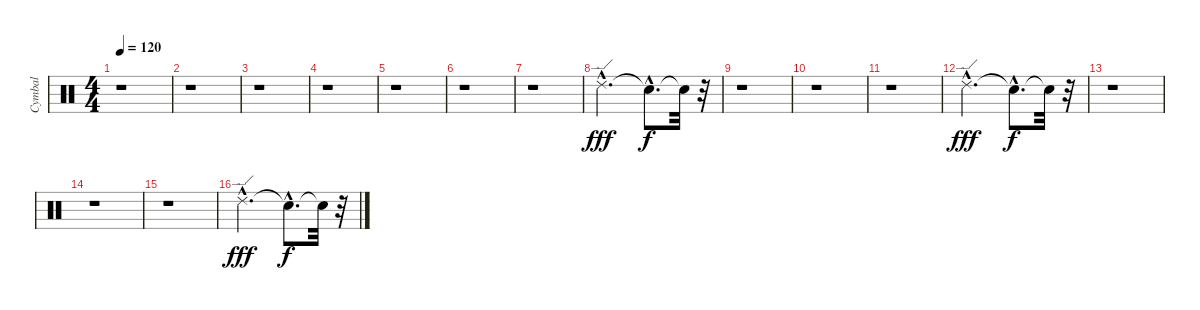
\track ("Cymbal" "Cymbal") {instrument percussion}
\staff {score}
\articulation defaults
\ts (4 4)
\tempo 120
\clef neutral
\ks c
r.1{dy fff} |
r.1 |
r.1 |
r.1 |
r.1 |
r.1 |
r.1 |
"Ride (edge) 2"{hac}.2{d} "Snare (hit)"{hac t}.8{d dy f} "Snare (hit)"{t}.32 r.32 |
r.1 |
r.1 |
r.1 |
"Ride (edge) 2"{hac}.2{d dy fff} "Snare (hit)"{hac t}.8{d dy f} "Snare (hit)"{t}.32 r.32 |
r.1 |
r.1 |
r.1 |
"Ride (edge) 2"{hac}.2{d dy fff} "Snare (hit)"{hac t}.8{d dy f} "Snare (hit)"{t}.32 r.32
